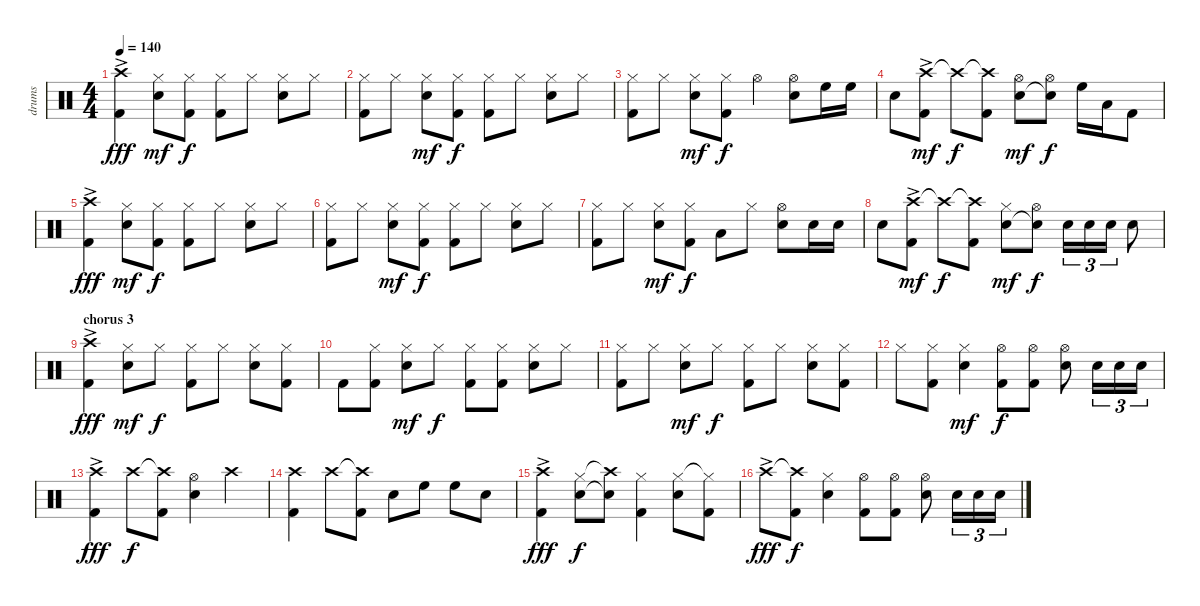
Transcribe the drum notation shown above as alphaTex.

\track ("drums" "drums") {instrument percussion}
\staff {score}
\articulation defaults
\ts (4 4)
\tempo 140
\clef neutral
\ks c
("Kick (hit) 2" "Crash high (hit)"{ac}).4{dy fff} ("Hi-Hat (closed)" "Snare (hit) 2").8{dy mf} ("Hi-Hat (closed)" "Kick (hit) 2").8{dy f} ("Hi-Hat (closed)" "Kick (hit) 2").8 "Hi-Hat (closed)".8 ("Hi-Hat (closed)" "Snare (hit) 2").8 "Hi-Hat (closed)".8 |
("Kick (hit) 2" "Hi-Hat (closed)").8 "Hi-Hat (closed)".8 ("Hi-Hat (closed)" "Snare (hit) 2").8{dy mf} ("Hi-Hat (closed)" "Kick (hit) 2").8{dy f} ("Hi-Hat (closed)" "Kick (hit) 2").8 "Hi-Hat (closed)".8 ("Hi-Hat (closed)" "Snare (hit) 2").8 "Hi-Hat (closed)".8 |
("Kick (hit) 2" "Hi-Hat (closed)").8 "Hi-Hat (closed)".8 ("Hi-Hat (closed)" "Snare (hit) 2").8{dy mf} ("Hi-Hat (closed)" "Kick (hit) 2").8{dy f} "Hi-Hat (open)".4 ("Hi-Hat (open)" "Snare (hit) 2").8 "High Floor Tom (hit)".16 "High Floor Tom (hit)".16 |
"Snare (hit) 2".8 ("Crash high (hit)"{ac} "Kick (hit) 2").8{dy mf} "Crash high (hit)"{t}.8{dy f} ("Crash high (hit)"{t} "Kick (hit) 2").8 ("Hi-Hat (open)" "Snare (hit) 2").8{dy mf} ("Hi-Hat (open)" "Snare (hit) 2"{t}).8{dy f} "High Floor Tom (hit)".16 "Low Tom (hit)".16 "Kick (hit) 2".8 |
("Kick (hit) 2" "Crash high (hit)"{ac}).4{dy fff} ("Hi-Hat (closed)" "Snare (hit) 2").8{dy mf} ("Hi-Hat (closed)" "Kick (hit) 2").8{dy f} ("Hi-Hat (closed)" "Kick (hit) 2").8 "Hi-Hat (closed)".8 ("Hi-Hat (closed)" "Snare (hit) 2").8 "Hi-Hat (closed)".8 |
("Kick (hit) 2" "Hi-Hat (closed)").8 "Hi-Hat (closed)".8 ("Hi-Hat (closed)" "Snare (hit) 2").8{dy mf} ("Hi-Hat (closed)" "Kick (hit) 2").8{dy f} ("Hi-Hat (closed)" "Kick (hit) 2").8 "Hi-Hat (closed)".8 ("Hi-Hat (closed)" "Snare (hit) 2").8 "Hi-Hat (closed)".8 |
("Kick (hit) 2" "Hi-Hat (closed)").8 "Hi-Hat (closed)".8 ("Hi-Hat (closed)" "Snare (hit) 2").8{dy mf} ("Hi-Hat (closed)" "Kick (hit) 2").8{dy f} "Low Floor Tom (hit)".8 "Hi-Hat (closed)".8 ("Hi-Hat (open)" "Snare (hit) 2").8 "Snare (hit) 2".16 "Snare (hit) 2".16 |
"Snare (hit) 2".8 ("Crash high (hit)"{ac} "Kick (hit) 2").8{dy mf} "Crash high (hit)"{t}.8{dy f} ("Crash high (hit)"{t} "Kick (hit) 2").8 ("Hi-Hat (closed)" "Snare (hit) 2").8{dy mf} ("Hi-Hat (open)" "Snare (hit) 2"{t}).8{dy f} "Snare (hit) 2".16{tu (3 2)} "Snare (hit) 2".16{tu (3 2)} "Snare (hit) 2".16{tu (3 2)} "Snare (hit) 2".8 |
\section ("" "chorus 3")
("Kick (hit) 2" "Crash high (hit)"{ac}).4{dy fff} ("Hi-Hat (closed)" "Snare (hit) 2").8{dy mf} "Hi-Hat (closed)".8{dy f} ("Hi-Hat (closed)" "Kick (hit) 2").8 "Hi-Hat (closed)".8 ("Hi-Hat (closed)" "Snare (hit) 2").8 ("Hi-Hat (closed)" "Kick (hit) 2").8 |
"Kick (hit) 2".8 ("Hi-Hat (closed)" "Kick (hit) 2").8 ("Hi-Hat (closed)" "Snare (hit) 2").8{dy mf} "Hi-Hat (closed)".8{dy f} ("Hi-Hat (closed)" "Kick (hit) 2").8 ("Hi-Hat (closed)" "Kick (hit) 2").8 ("Hi-Hat (closed)" "Snare (hit) 2").8 "Hi-Hat (closed)".8 |
("Kick (hit) 2" "Hi-Hat (closed)").8 "Hi-Hat (closed)".8 ("Hi-Hat (closed)" "Snare (hit) 2").8{dy mf} "Hi-Hat (closed)".8{dy f} ("Hi-Hat (closed)" "Kick (hit) 2").8 "Hi-Hat (closed)".8 ("Hi-Hat (closed)" "Snare (hit) 2").8 ("Hi-Hat (closed)" "Kick (hit) 2").8 |
"Hi-Hat (closed)".8 ("Hi-Hat (closed)" "Kick (hit) 2").8 ("Hi-Hat (closed)" "Snare (hit) 2").4{dy mf} ("Hi-Hat (open)" "Kick (hit) 2").8{dy f} ("Hi-Hat (open)" "Kick (hit) 2").8 ("Hi-Hat (open)" "Snare (hit) 2").8 "Snare (hit) 2".16{tu (3 2)} "Snare (hit) 2".16{tu (3 2)} "Snare (hit) 2".16{tu (3 2)} |
("Crash high (hit)"{ac} "Kick (hit) 2").4{dy fff} "Crash high (hit)".8{dy f} ("Crash high (hit)"{t} "Kick (hit) 2").8 ("Hi-Hat (open)" "Snare (hit) 2").4 "Crash high (hit)".4 |
("Crash high (hit)" "Kick (hit) 2").4 "Crash high (hit)".8 ("Crash high (hit)"{t} "Kick (hit) 2").8 "Snare (hit) 2".8 "High Floor Tom (hit)".8 "High Floor Tom (hit)".8 "Snare (hit) 2".8 |
("Crash high (hit)"{ac} "Kick (hit) 2").4{dy fff} ("Hi-Hat (closed)" "Snare (hit) 2").8{dy f} ("Crash high (hit)"{t} "Snare (hit) 2"{t}).8 ("Hi-Hat (closed)" "Kick (hit) 2").4 ("Hi-Hat (closed)" "Snare (hit) 2").8 ("Hi-Hat (closed)"{t} "Kick (hit) 2").8 |
"Crash high (hit)"{ac}.8{dy fff} ("Crash high (hit)"{t} "Kick (hit) 2").8{dy f} ("Hi-Hat (closed)" "Snare (hit) 2").4 ("Hi-Hat (open)" "Kick (hit) 2").8 ("Hi-Hat (open)" "Kick (hit) 2").8 ("Hi-Hat (open)" "Snare (hit) 2").8 "Snare (hit) 2".16{tu (3 2)} "Snare (hit) 2".16{tu (3 2)} "Snare (hit) 2".16{tu (3 2)}
